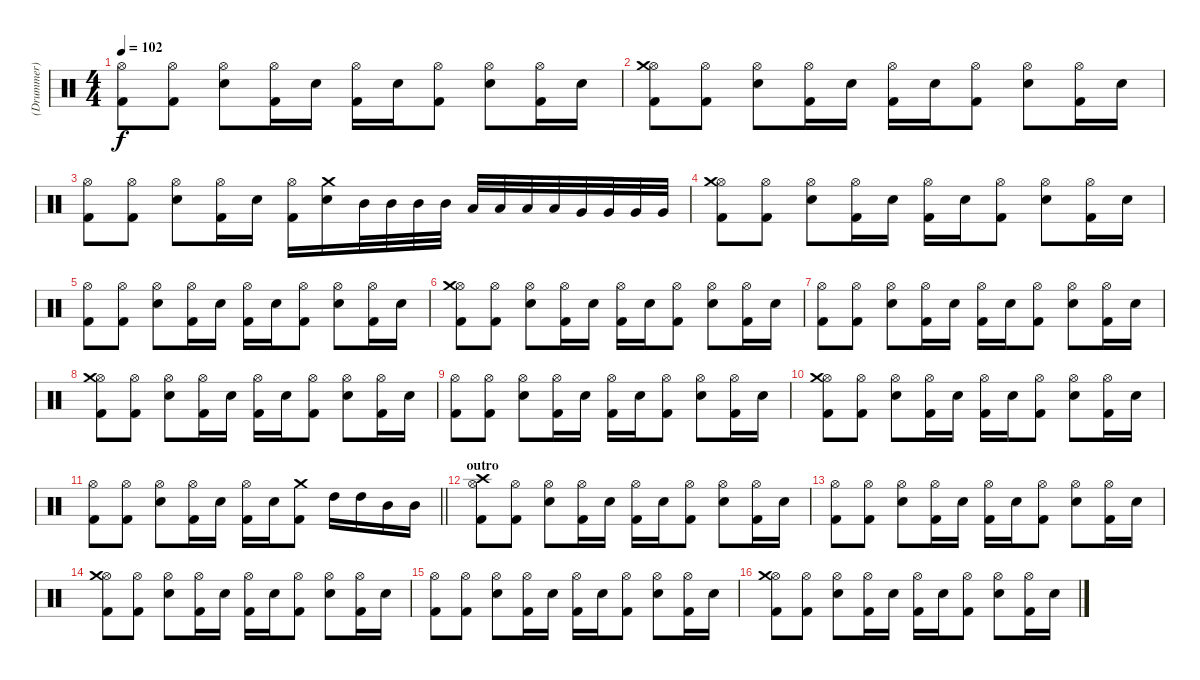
\track ("(Drummer)" "(Drummer)") {solo instrument percussion}
\staff {score}
\articulation defaults
\ts (4 4)
\tempo 102
\clef neutral
\ks c
("Hi-Hat (open)" "Kick (hit) 2").8{dy f} ("Hi-Hat (open)" "Kick (hit) 2").8 ("Hi-Hat (open)" "Electric Snare (hit)").8 ("Hi-Hat (open)" "Kick (hit) 2").16 "Electric Snare (hit)".16 ("Hi-Hat (open)" "Kick (hit) 2").16 "Electric Snare (hit)".16 ("Hi-Hat (open)" "Kick (hit) 2").8 ("Hi-Hat (open)" "Electric Snare (hit)").8 ("Hi-Hat (open)" "Kick (hit) 2").16 "Electric Snare (hit)".16 |
("Hi-Hat (open)" "Crash medium (hit)" "Kick (hit) 2").8 ("Hi-Hat (open)" "Kick (hit) 2").8 ("Hi-Hat (open)" "Electric Snare (hit)").8 ("Hi-Hat (open)" "Kick (hit) 2").16 "Electric Snare (hit)".16 ("Hi-Hat (open)" "Kick (hit) 2").16 "Electric Snare (hit)".16 ("Hi-Hat (open)" "Kick (hit) 2").8 ("Hi-Hat (open)" "Electric Snare (hit)").8 ("Hi-Hat (open)" "Kick (hit) 2").16 "Electric Snare (hit)".16 |
("Hi-Hat (open)" "Kick (hit) 2").8 ("Hi-Hat (open)" "Kick (hit) 2").8 ("Hi-Hat (open)" "Electric Snare (hit)").8 ("Hi-Hat (open)" "Kick (hit) 2").16 "Electric Snare (hit)".16 ("Hi-Hat (open)" "Kick (hit) 2").16 ("Crash medium (hit)" "Electric Snare (hit)").16 "Mid Tom (hit)".32 "Mid Tom (hit)".32 "Mid Tom (hit)".32 "Mid Tom (hit)".32 "Low Tom (hit)".32 "Low Tom (hit)".32 "Low Tom (hit)".32 "Low Tom (hit)".32 "Very Low Tom (hit)".32 "Very Low Tom (hit)".32 "Very Low Tom (hit)".32 "Very Low Tom (hit)".32 |
("Hi-Hat (open)" "Crash medium (hit)" "Kick (hit) 2").8 ("Hi-Hat (open)" "Kick (hit) 2").8 ("Hi-Hat (open)" "Electric Snare (hit)").8 ("Hi-Hat (open)" "Kick (hit) 2").16 "Electric Snare (hit)".16 ("Hi-Hat (open)" "Kick (hit) 2").16 "Electric Snare (hit)".16 ("Hi-Hat (open)" "Kick (hit) 2").8 ("Hi-Hat (open)" "Electric Snare (hit)").8 ("Hi-Hat (open)" "Kick (hit) 2").16 "Electric Snare (hit)".16 |
("Hi-Hat (open)" "Kick (hit) 2").8 ("Hi-Hat (open)" "Kick (hit) 2").8 ("Hi-Hat (open)" "Electric Snare (hit)").8 ("Hi-Hat (open)" "Kick (hit) 2").16 "Electric Snare (hit)".16 ("Hi-Hat (open)" "Kick (hit) 2").16 "Electric Snare (hit)".16 ("Hi-Hat (open)" "Kick (hit) 2").8 ("Hi-Hat (open)" "Electric Snare (hit)").8 ("Hi-Hat (open)" "Kick (hit) 2").16 "Electric Snare (hit)".16 |
("Hi-Hat (open)" "Crash medium (hit)" "Kick (hit) 2").8 ("Hi-Hat (open)" "Kick (hit) 2").8 ("Hi-Hat (open)" "Electric Snare (hit)").8 ("Hi-Hat (open)" "Kick (hit) 2").16 "Electric Snare (hit)".16 ("Hi-Hat (open)" "Kick (hit) 2").16 "Electric Snare (hit)".16 ("Hi-Hat (open)" "Kick (hit) 2").8 ("Hi-Hat (open)" "Electric Snare (hit)").8 ("Hi-Hat (open)" "Kick (hit) 2").16 "Electric Snare (hit)".16 |
("Hi-Hat (open)" "Kick (hit) 2").8 ("Hi-Hat (open)" "Kick (hit) 2").8 ("Hi-Hat (open)" "Electric Snare (hit)").8 ("Hi-Hat (open)" "Kick (hit) 2").16 "Electric Snare (hit)".16 ("Hi-Hat (open)" "Kick (hit) 2").16 "Electric Snare (hit)".16 ("Hi-Hat (open)" "Kick (hit) 2").8 ("Hi-Hat (open)" "Electric Snare (hit)").8 ("Hi-Hat (open)" "Kick (hit) 2").16 "Electric Snare (hit)".16 |
("Hi-Hat (open)" "Crash medium (hit)" "Kick (hit) 2").8 ("Hi-Hat (open)" "Kick (hit) 2").8 ("Hi-Hat (open)" "Electric Snare (hit)").8 ("Hi-Hat (open)" "Kick (hit) 2").16 "Electric Snare (hit)".16 ("Hi-Hat (open)" "Kick (hit) 2").16 "Electric Snare (hit)".16 ("Hi-Hat (open)" "Kick (hit) 2").8 ("Hi-Hat (open)" "Electric Snare (hit)").8 ("Hi-Hat (open)" "Kick (hit) 2").16 "Electric Snare (hit)".16 |
("Hi-Hat (open)" "Kick (hit) 2").8 ("Hi-Hat (open)" "Kick (hit) 2").8 ("Hi-Hat (open)" "Electric Snare (hit)").8 ("Hi-Hat (open)" "Kick (hit) 2").16 "Electric Snare (hit)".16 ("Hi-Hat (open)" "Kick (hit) 2").16 "Electric Snare (hit)".16 ("Hi-Hat (open)" "Kick (hit) 2").8 ("Hi-Hat (open)" "Electric Snare (hit)").8 ("Hi-Hat (open)" "Kick (hit) 2").16 "Electric Snare (hit)".16 |
("Hi-Hat (open)" "Crash medium (hit)" "Kick (hit) 2").8 ("Hi-Hat (open)" "Kick (hit) 2").8 ("Hi-Hat (open)" "Electric Snare (hit)").8 ("Hi-Hat (open)" "Kick (hit) 2").16 "Electric Snare (hit)".16 ("Hi-Hat (open)" "Kick (hit) 2").16 "Electric Snare (hit)".16 ("Hi-Hat (open)" "Kick (hit) 2").8 ("Hi-Hat (open)" "Electric Snare (hit)").8 ("Hi-Hat (open)" "Kick (hit) 2").16 "Electric Snare (hit)".16 |
\barLineRight lightlight
("Hi-Hat (open)" "Kick (hit) 2").8 ("Hi-Hat (open)" "Kick (hit) 2").8 ("Hi-Hat (open)" "Electric Snare (hit)").8 ("Hi-Hat (open)" "Kick (hit) 2").16 "Electric Snare (hit)".16 ("Hi-Hat (open)" "Kick (hit) 2").16 "Electric Snare (hit)".16 ("Crash medium (hit)" "Kick (hit) 2").8 "High Tom (hit)".16 "High Tom (hit)".16 "Mid Tom (hit)".16 "Mid Tom (hit)".16 |
\section ("" "outro")
("Hi-Hat (open)" "Crash high (hit)" "Kick (hit) 2").8 ("Hi-Hat (open)" "Kick (hit) 2").8 ("Hi-Hat (open)" "Electric Snare (hit)").8 ("Hi-Hat (open)" "Kick (hit) 2").16 "Electric Snare (hit)".16 ("Hi-Hat (open)" "Kick (hit) 2").16 "Electric Snare (hit)".16 ("Hi-Hat (open)" "Kick (hit) 2").8 ("Hi-Hat (open)" "Electric Snare (hit)").8 ("Hi-Hat (open)" "Kick (hit) 2").16 "Electric Snare (hit)".16 |
("Hi-Hat (open)" "Kick (hit) 2").8 ("Hi-Hat (open)" "Kick (hit) 2").8 ("Hi-Hat (open)" "Electric Snare (hit)").8 ("Hi-Hat (open)" "Kick (hit) 2").16 "Electric Snare (hit)".16 ("Hi-Hat (open)" "Kick (hit) 2").16 "Electric Snare (hit)".16 ("Hi-Hat (open)" "Kick (hit) 2").8 ("Hi-Hat (open)" "Electric Snare (hit)").8 ("Hi-Hat (open)" "Kick (hit) 2").16 "Electric Snare (hit)".16 |
("Hi-Hat (open)" "Crash medium (hit)" "Kick (hit) 2").8 ("Hi-Hat (open)" "Kick (hit) 2").8 ("Hi-Hat (open)" "Electric Snare (hit)").8 ("Hi-Hat (open)" "Kick (hit) 2").16 "Electric Snare (hit)".16 ("Hi-Hat (open)" "Kick (hit) 2").16 "Electric Snare (hit)".16 ("Hi-Hat (open)" "Kick (hit) 2").8 ("Hi-Hat (open)" "Electric Snare (hit)").8 ("Hi-Hat (open)" "Kick (hit) 2").16 "Electric Snare (hit)".16 |
("Hi-Hat (open)" "Kick (hit) 2").8 ("Hi-Hat (open)" "Kick (hit) 2").8 ("Hi-Hat (open)" "Electric Snare (hit)").8 ("Hi-Hat (open)" "Kick (hit) 2").16 "Electric Snare (hit)".16 ("Hi-Hat (open)" "Kick (hit) 2").16 "Electric Snare (hit)".16 ("Hi-Hat (open)" "Kick (hit) 2").8 ("Hi-Hat (open)" "Electric Snare (hit)").8 ("Hi-Hat (open)" "Kick (hit) 2").16 "Electric Snare (hit)".16 |
("Hi-Hat (open)" "Crash medium (hit)" "Kick (hit) 2").8 ("Hi-Hat (open)" "Kick (hit) 2").8 ("Hi-Hat (open)" "Electric Snare (hit)").8 ("Hi-Hat (open)" "Kick (hit) 2").16 "Electric Snare (hit)".16 ("Hi-Hat (open)" "Kick (hit) 2").16 "Electric Snare (hit)".16 ("Hi-Hat (open)" "Kick (hit) 2").8 ("Hi-Hat (open)" "Electric Snare (hit)").8 ("Hi-Hat (open)" "Kick (hit) 2").16 "Electric Snare (hit)".16
